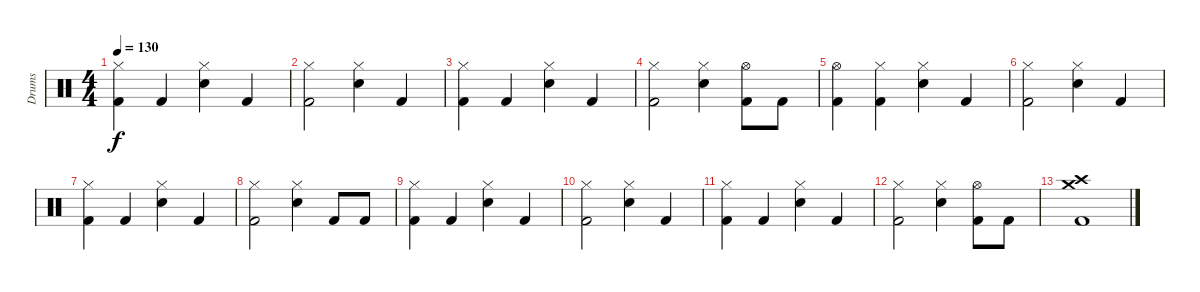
\track ("Drums" "Drums") {instrument percussion}
\staff {score}
\articulation defaults
\ts (4 4)
\tempo 130
\clef neutral
\ks c
("Hi-Hat (closed)" "Kick (hit) 2").4{dy f volume 6} "Kick (hit) 2".4 ("Hi-Hat (closed)" "Electric Snare (hit)").4 "Kick (hit) 2".4 |
("Hi-Hat (closed)" "Kick (hit) 2").2 ("Hi-Hat (closed)" "Electric Snare (hit)").4 "Kick (hit) 2".4 |
("Hi-Hat (closed)" "Kick (hit) 2").4 "Kick (hit) 2".4 ("Hi-Hat (closed)" "Electric Snare (hit)").4 "Kick (hit) 2".4 |
("Hi-Hat (closed)" "Kick (hit) 2").2 ("Hi-Hat (closed)" "Electric Snare (hit)").4 ("Hi-Hat (open)" "Kick (hit) 2").8 "Kick (hit) 2".8 |
("Hi-Hat (open)" "Kick (hit) 2").4{volume 4} ("Hi-Hat (closed)" "Kick (hit) 2").4 ("Hi-Hat (closed)" "Electric Snare (hit)").4 "Kick (hit) 2".4 |
("Hi-Hat (closed)" "Kick (hit) 2").2 ("Hi-Hat (closed)" "Electric Snare (hit)").4 "Kick (hit) 2".4 |
("Hi-Hat (closed)" "Kick (hit) 2").4 "Kick (hit) 2".4 ("Hi-Hat (closed)" "Electric Snare (hit)").4 "Kick (hit) 2".4 |
("Hi-Hat (closed)" "Kick (hit) 2").2 ("Hi-Hat (closed)" "Electric Snare (hit)").4 "Kick (hit) 2".8 "Kick (hit) 2".8 |
("Hi-Hat (closed)" "Kick (hit) 2").4{volume 2} "Kick (hit) 2".4 ("Hi-Hat (closed)" "Electric Snare (hit)").4 "Kick (hit) 2".4 |
("Hi-Hat (closed)" "Kick (hit) 2").2 ("Hi-Hat (closed)" "Electric Snare (hit)").4 "Kick (hit) 2".4 |
("Hi-Hat (closed)" "Kick (hit) 2").4 "Kick (hit) 2".4 ("Hi-Hat (closed)" "Electric Snare (hit)").4 "Kick (hit) 2".4 |
("Hi-Hat (closed)" "Kick (hit) 2").2 ("Hi-Hat (closed)" "Electric Snare (hit)").4 ("Hi-Hat (open)" "Kick (hit) 2").8 "Kick (hit) 2".8 |
("Crash medium (hit)" "Crash high (hit)" "Kick (hit) 2").1
